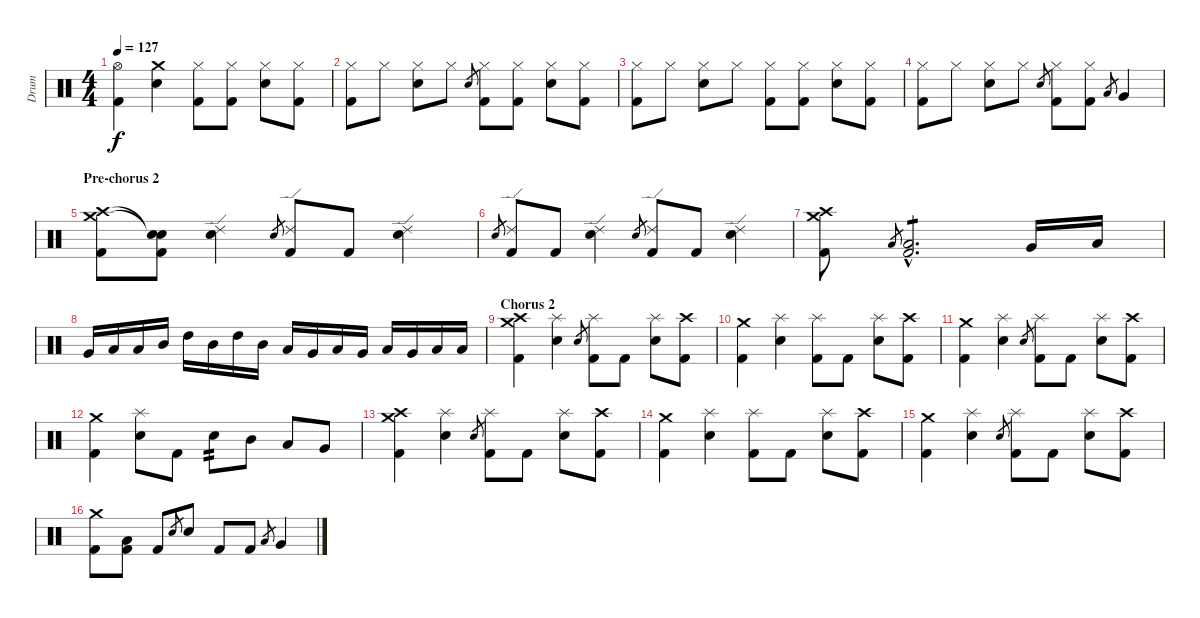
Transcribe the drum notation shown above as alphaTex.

\track ("Drum" "Drum") {instrument percussion}
\staff {score}
\articulation defaults
\ts (4 4)
\tempo 127
\clef neutral
\ks c
("Hi-Hat (open)" "Kick (hit) 2").4{dy f} ("Electric Snare (hit)" "Crash medium (hit)").4 ("Hi-Hat (closed)" "Kick (hit) 2").8 ("Hi-Hat (closed)" "Kick (hit) 2").8 ("Hi-Hat (closed)" "Electric Snare (hit)").8 ("Hi-Hat (closed)" "Kick (hit) 2").8 |
("Hi-Hat (closed)" "Kick (hit) 2").8 "Hi-Hat (closed)".8 ("Hi-Hat (closed)" "Electric Snare (hit)").8 "Hi-Hat (closed)".8 "Electric Snare (hit)".8{gr} ("Hi-Hat (closed)" "Kick (hit) 2").8 ("Hi-Hat (closed)" "Kick (hit) 2").8 ("Hi-Hat (closed)" "Electric Snare (hit)").8 ("Hi-Hat (closed)" "Kick (hit) 2").8 |
("Hi-Hat (closed)" "Kick (hit) 2").8 "Hi-Hat (closed)".8 ("Hi-Hat (closed)" "Electric Snare (hit)").8 "Hi-Hat (closed)".8 ("Hi-Hat (closed)" "Kick (hit) 2").8 ("Hi-Hat (closed)" "Kick (hit) 2").8 ("Hi-Hat (closed)" "Electric Snare (hit)").8 ("Hi-Hat (closed)" "Kick (hit) 2").8 |
("Hi-Hat (closed)" "Kick (hit) 2").8 "Hi-Hat (closed)".8 ("Hi-Hat (closed)" "Electric Snare (hit)").8 "Hi-Hat (closed)".8 "Electric Snare (hit)".8{gr} ("Hi-Hat (closed)" "Kick (hit) 2").8 ("Hi-Hat (closed)" "Kick (hit) 2").8 "Low Floor Tom (hit)".8{gr} "Very Low Tom (hit)".4 |
\section ("" "Pre-chorus 2")
("Kick (hit) 2" "Crash high (hit)" "Crash medium (hit)").8 ("Kick (hit) 2" "Snare (hit)"{t} "Snare (hit)"{t}).8 ("Ride (edge) 2" "Electric Snare (hit)").4 "Electric Snare (hit)".8{gr} ("Ride (edge) 2" "Kick (hit) 2").8 "Kick (hit) 2".8 ("Ride (edge) 2" "Electric Snare (hit)").4 |
"Electric Snare (hit)".8{gr} ("Ride (edge) 2" "Kick (hit) 2").8 "Kick (hit) 2".8 ("Ride (edge) 2" "Electric Snare (hit)").4 "Electric Snare (hit)".8{gr} ("Ride (edge) 2" "Kick (hit) 2").8 "Kick (hit) 2".8 ("Ride (edge) 2" "Electric Snare (hit)").4 |
("Kick (hit) 2" "Crash high (hit)" "Crash medium (hit)").8 "Low Floor Tom (hit)".8{gr} ("Low Floor Tom (hit)"{hac} "Kick (hit) 2"{hac}).2{d tp 1} "Very Low Tom (hit)".16 "Low Floor Tom (hit)".16 |
"Very Low Tom (hit)".16 "Low Floor Tom (hit)".16 "Low Tom (hit)".16 "Mid Tom (hit)".16 "High Tom (hit)".16 "Mid Tom (hit)".16 "High Tom (hit)".16 "Mid Tom (hit)".16 "Low Tom (hit)".16 "Very Low Tom (hit)".16 "Low Tom (hit)".16 "Very Low Tom (hit)".16 "Low Floor Tom (hit)".16 "Very Low Tom (hit)".16 "Low Floor Tom (hit)".16 "Low Floor Tom (hit)".16 |
\section ("" "Chorus 2")
("Kick (hit) 2" "Crash high (hit)" "Crash medium (hit)").4 ("Splash (hit)" "Electric Snare (hit)").4 "Electric Snare (hit)".8{gr} ("Splash (hit)" "Kick (hit) 2").8 "Kick (hit) 2".8 ("Splash (hit)" "Electric Snare (hit)").8 ("Kick (hit) 2" "Crash high (hit)").8 |
("Kick (hit) 2" "Crash medium (hit)").4 ("Splash (hit)" "Electric Snare (hit)").4 ("Splash (hit)" "Kick (hit) 2").8 "Kick (hit) 2".8 ("Splash (hit)" "Electric Snare (hit)").8 ("Kick (hit) 2" "Crash high (hit)").8 |
("Kick (hit) 2" "Crash medium (hit)").4 ("Splash (hit)" "Electric Snare (hit)").4 "Electric Snare (hit)".8{gr} ("Splash (hit)" "Kick (hit) 2").8 "Kick (hit) 2".8 ("Splash (hit)" "Electric Snare (hit)").8 ("Kick (hit) 2" "Crash high (hit)").8 |
("Kick (hit) 2" "Crash medium (hit)").4 ("Splash (hit)" "Electric Snare (hit)").8 "Kick (hit) 2".8 "Electric Snare (hit)".8{tp 2} "Mid Tom (hit)".8 "Low Tom (hit)".8 "Very Low Tom (hit)".8 |
("Kick (hit) 2" "Crash high (hit)" "Crash medium (hit)").4 ("Splash (hit)" "Electric Snare (hit)").4 "Electric Snare (hit)".8{gr} ("Splash (hit)" "Kick (hit) 2").8 "Kick (hit) 2".8 ("Splash (hit)" "Electric Snare (hit)").8 ("Kick (hit) 2" "Crash high (hit)").8 |
("Kick (hit) 2" "Crash medium (hit)").4 ("Splash (hit)" "Electric Snare (hit)").4 ("Splash (hit)" "Kick (hit) 2").8 "Kick (hit) 2".8 ("Splash (hit)" "Electric Snare (hit)").8 ("Kick (hit) 2" "Crash high (hit)").8 |
("Kick (hit) 2" "Crash medium (hit)").4 ("Splash (hit)" "Electric Snare (hit)").4 "Electric Snare (hit)".8{gr} ("Splash (hit)" "Kick (hit) 2").8 "Kick (hit) 2".8 ("Splash (hit)" "Electric Snare (hit)").8 ("Kick (hit) 2" "Crash high (hit)").8 |
("Kick (hit) 2" "Crash medium (hit)").8 ("Low Tom (hit)" "Kick (hit) 2").8 "Kick (hit) 2".8 "Electric Snare (hit)".8{gr} "Electric Snare (hit)".8 "Kick (hit) 2".8 "Kick (hit) 2".8 "Low Floor Tom (hit)".8{gr} "Very Low Tom (hit)".4
